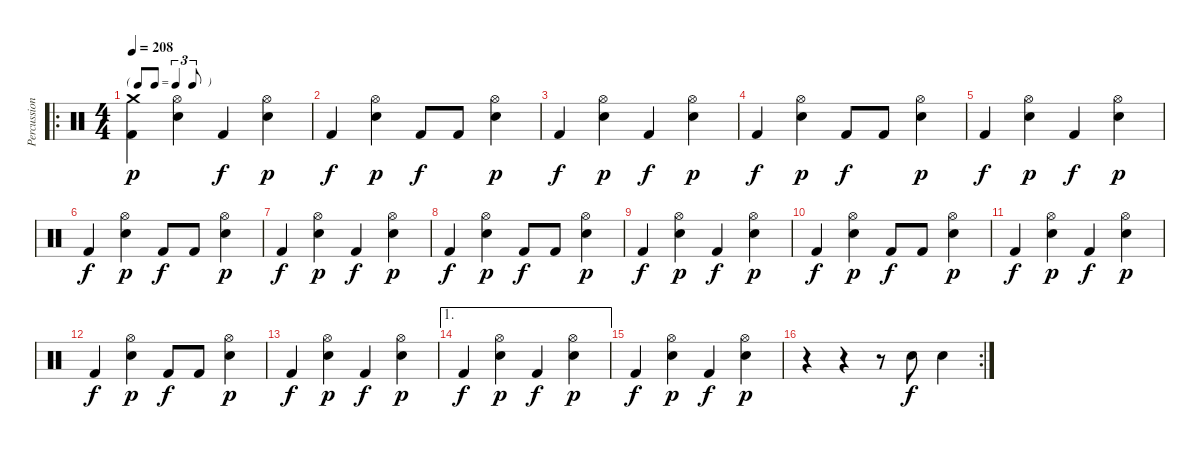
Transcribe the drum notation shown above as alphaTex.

\track ("Percussions" "Percussion") {instrument percussion}
\staff {score}
\articulation defaults
\ro
\ts (4 4)
\tf triplet8th
\tempo 208
\clef neutral
\ks c
("Crash medium (hit)" "Kick (hit) 2").4{dy p} ("Hi-Hat (open)" "Electric Snare (hit)").4 "Kick (hit) 2".4{dy f} ("Hi-Hat (open)" "Electric Snare (hit)").4{dy p} |
"Kick (hit) 2".4{dy f} ("Hi-Hat (open)" "Electric Snare (hit)").4{dy p} "Kick (hit) 2".8{dy f} "Kick (hit) 2".8 ("Hi-Hat (open)" "Electric Snare (hit)").4{dy p} |
"Kick (hit) 2".4{dy f} ("Hi-Hat (open)" "Electric Snare (hit)").4{dy p} "Kick (hit) 2".4{dy f} ("Hi-Hat (open)" "Electric Snare (hit)").4{dy p} |
"Kick (hit) 2".4{dy f} ("Hi-Hat (open)" "Electric Snare (hit)").4{dy p} "Kick (hit) 2".8{dy f} "Kick (hit) 2".8 ("Hi-Hat (open)" "Electric Snare (hit)").4{dy p} |
"Kick (hit) 2".4{dy f} ("Hi-Hat (open)" "Electric Snare (hit)").4{dy p} "Kick (hit) 2".4{dy f} ("Hi-Hat (open)" "Electric Snare (hit)").4{dy p} |
"Kick (hit) 2".4{dy f} ("Hi-Hat (open)" "Electric Snare (hit)").4{dy p} "Kick (hit) 2".8{dy f} "Kick (hit) 2".8 ("Hi-Hat (open)" "Electric Snare (hit)").4{dy p} |
"Kick (hit) 2".4{dy f} ("Hi-Hat (open)" "Electric Snare (hit)").4{dy p} "Kick (hit) 2".4{dy f} ("Hi-Hat (open)" "Electric Snare (hit)").4{dy p} |
"Kick (hit) 2".4{dy f} ("Hi-Hat (open)" "Electric Snare (hit)").4{dy p} "Kick (hit) 2".8{dy f} "Kick (hit) 2".8 ("Hi-Hat (open)" "Electric Snare (hit)").4{dy p} |
"Kick (hit) 2".4{dy f} ("Hi-Hat (open)" "Electric Snare (hit)").4{dy p} "Kick (hit) 2".4{dy f} ("Hi-Hat (open)" "Electric Snare (hit)").4{dy p} |
"Kick (hit) 2".4{dy f} ("Hi-Hat (open)" "Electric Snare (hit)").4{dy p} "Kick (hit) 2".8{dy f} "Kick (hit) 2".8 ("Hi-Hat (open)" "Electric Snare (hit)").4{dy p} |
"Kick (hit) 2".4{dy f} ("Hi-Hat (open)" "Electric Snare (hit)").4{dy p} "Kick (hit) 2".4{dy f} ("Hi-Hat (open)" "Electric Snare (hit)").4{dy p} |
"Kick (hit) 2".4{dy f} ("Hi-Hat (open)" "Electric Snare (hit)").4{dy p} "Kick (hit) 2".8{dy f} "Kick (hit) 2".8 ("Hi-Hat (open)" "Electric Snare (hit)").4{dy p} |
"Kick (hit) 2".4{dy f} ("Hi-Hat (open)" "Electric Snare (hit)").4{dy p} "Kick (hit) 2".4{dy f} ("Hi-Hat (open)" "Electric Snare (hit)").4{dy p} |
\ae 1 "Kick (hit) 2".4{dy f}
("Hi-Hat (open)" "Electric Snare (hit)").4{dy p} "Kick (hit) 2".4{dy f} ("Hi-Hat (open)" "Electric Snare (hit)").4{dy p} |
"Kick (hit) 2".4{dy f} ("Hi-Hat (open)" "Electric Snare (hit)").4{dy p} "Kick (hit) 2".4{dy f} ("Hi-Hat (open)" "Electric Snare (hit)").4{dy p} |
\rc 2
r.4 r.4 r.8 "Electric Snare (hit)".8{dy f} "Electric Snare (hit)".4
